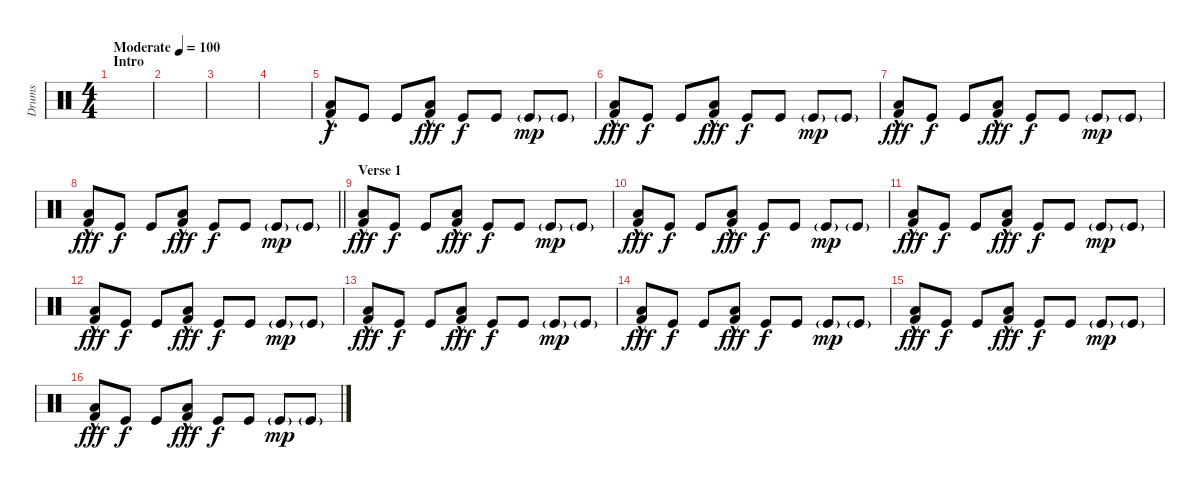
\track ("Drums" "Drums") {instrument percussion}
\staff {score}
\articulation defaults
\ts (4 4)
\section ("" "Intro")
\tempo (100 "Moderate")
\clef neutral
\ks c
|
|
|
|
("Low Floor Tom (hit)" "Kick (hit) 2"{hac}).8 "Kick (hit)".8{dy f} "Kick (hit)".8 ("Low Floor Tom (hit)" "Kick (hit) 2"{hac}).8{dy fff} "Kick (hit)".8{dy f} "Kick (hit)".8 "Kick (hit)"{g}.8{dy mp} "Kick (hit)"{g}.8 |
("Low Floor Tom (hit)" "Kick (hit) 2"{hac}).8{dy fff} "Kick (hit)".8{dy f} "Kick (hit)".8 ("Low Floor Tom (hit)" "Kick (hit) 2"{hac}).8{dy fff} "Kick (hit)".8{dy f} "Kick (hit)".8 "Kick (hit)"{g}.8{dy mp} "Kick (hit)"{g}.8 |
("Low Floor Tom (hit)" "Kick (hit) 2"{hac}).8{dy fff} "Kick (hit)".8{dy f} "Kick (hit)".8 ("Low Floor Tom (hit)" "Kick (hit) 2"{hac}).8{dy fff} "Kick (hit)".8{dy f} "Kick (hit)".8 "Kick (hit)"{g}.8{dy mp} "Kick (hit)"{g}.8 |
\barLineRight lightlight
("Low Floor Tom (hit)" "Kick (hit) 2"{hac}).8{dy fff} "Kick (hit)".8{dy f} "Kick (hit)".8 ("Low Floor Tom (hit)" "Kick (hit) 2"{hac}).8{dy fff} "Kick (hit)".8{dy f} "Kick (hit)".8 "Kick (hit)"{g}.8{dy mp} "Kick (hit)"{g}.8 |
\section ("" "Verse 1")
("Low Floor Tom (hit)" "Kick (hit) 2"{hac}).8{dy fff} "Kick (hit)".8{dy f} "Kick (hit)".8 ("Low Floor Tom (hit)" "Kick (hit) 2"{hac}).8{dy fff} "Kick (hit)".8{dy f} "Kick (hit)".8 "Kick (hit)"{g}.8{dy mp} "Kick (hit)"{g}.8 |
("Low Floor Tom (hit)" "Kick (hit) 2"{hac}).8{dy fff} "Kick (hit)".8{dy f} "Kick (hit)".8 ("Low Floor Tom (hit)" "Kick (hit) 2"{hac}).8{dy fff} "Kick (hit)".8{dy f} "Kick (hit)".8 "Kick (hit)"{g}.8{dy mp} "Kick (hit)"{g}.8 |
("Low Floor Tom (hit)" "Kick (hit) 2"{hac}).8{dy fff} "Kick (hit)".8{dy f} "Kick (hit)".8 ("Low Floor Tom (hit)" "Kick (hit) 2"{hac}).8{dy fff} "Kick (hit)".8{dy f} "Kick (hit)".8 "Kick (hit)"{g}.8{dy mp} "Kick (hit)"{g}.8 |
("Low Floor Tom (hit)" "Kick (hit) 2"{hac}).8{dy fff} "Kick (hit)".8{dy f} "Kick (hit)".8 ("Low Floor Tom (hit)" "Kick (hit) 2"{hac}).8{dy fff} "Kick (hit)".8{dy f} "Kick (hit)".8 "Kick (hit)"{g}.8{dy mp} "Kick (hit)"{g}.8 |
("Low Floor Tom (hit)" "Kick (hit) 2"{hac}).8{dy fff} "Kick (hit)".8{dy f} "Kick (hit)".8 ("Low Floor Tom (hit)" "Kick (hit) 2"{hac}).8{dy fff} "Kick (hit)".8{dy f} "Kick (hit)".8 "Kick (hit)"{g}.8{dy mp} "Kick (hit)"{g}.8 |
("Low Floor Tom (hit)" "Kick (hit) 2"{hac}).8{dy fff} "Kick (hit)".8{dy f} "Kick (hit)".8 ("Low Floor Tom (hit)" "Kick (hit) 2"{hac}).8{dy fff} "Kick (hit)".8{dy f} "Kick (hit)".8 "Kick (hit)"{g}.8{dy mp} "Kick (hit)"{g}.8 |
("Low Floor Tom (hit)" "Kick (hit) 2"{hac}).8{dy fff} "Kick (hit)".8{dy f} "Kick (hit)".8 ("Low Floor Tom (hit)" "Kick (hit) 2"{hac}).8{dy fff} "Kick (hit)".8{dy f} "Kick (hit)".8 "Kick (hit)"{g}.8{dy mp} "Kick (hit)"{g}.8 |
("Low Floor Tom (hit)" "Kick (hit) 2"{hac}).8{dy fff} "Kick (hit)".8{dy f} "Kick (hit)".8 ("Low Floor Tom (hit)" "Kick (hit) 2"{hac}).8{dy fff} "Kick (hit)".8{dy f} "Kick (hit)".8 "Kick (hit)"{g}.8{dy mp} "Kick (hit)"{g}.8
